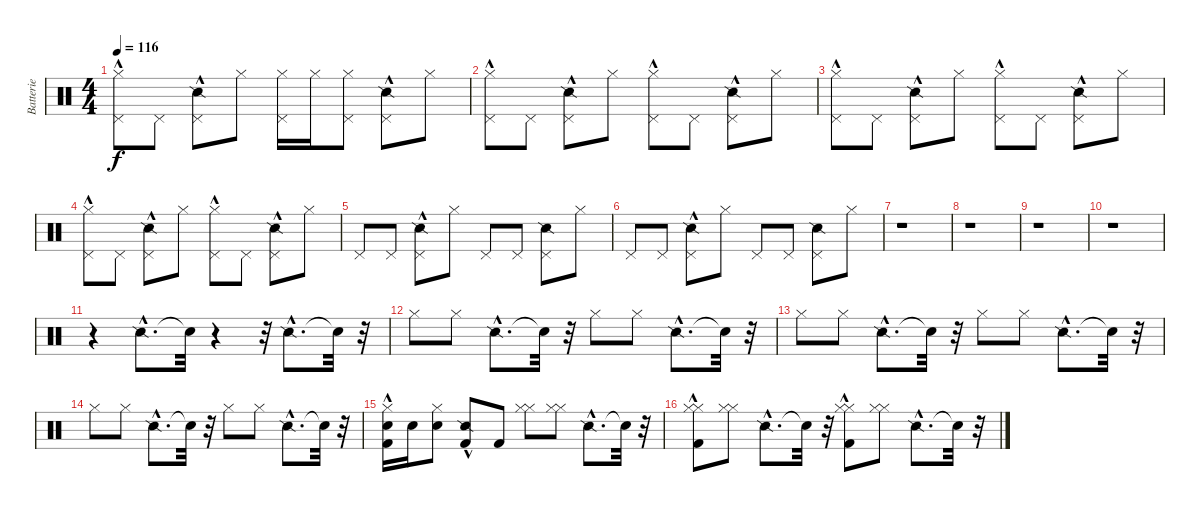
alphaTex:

\track ("Batterie" "Batterie") {instrument percussion}
\staff {score}
\articulation defaults
\ts (4 4)
\tempo 116
\clef neutral
\ks c
("Hi-Hat (closed)"{hac} "Pedal Hi-Hat (hit)").8{dy f} "Pedal Hi-Hat (hit)".8 ("Snare (side stick) 2"{hac} "Pedal Hi-Hat (hit)").8 "Hi-Hat (closed)".8 ("Hi-Hat (closed)" "Pedal Hi-Hat (hit)").16 "Hi-Hat (closed)".16 ("Hi-Hat (closed)" "Pedal Hi-Hat (hit)").8 ("Snare (side stick) 2"{hac} "Pedal Hi-Hat (hit)").8 "Hi-Hat (closed)".8 |
("Hi-Hat (closed)"{hac} "Pedal Hi-Hat (hit)").8 "Pedal Hi-Hat (hit)".8 ("Snare (side stick) 2"{hac} "Pedal Hi-Hat (hit)").8 "Hi-Hat (closed)".8 ("Hi-Hat (closed)"{hac} "Pedal Hi-Hat (hit)").8 "Pedal Hi-Hat (hit)".8 ("Snare (side stick) 2"{hac} "Pedal Hi-Hat (hit)").8 "Hi-Hat (closed)".8 |
("Hi-Hat (closed)"{hac} "Pedal Hi-Hat (hit)").8 "Pedal Hi-Hat (hit)".8 ("Snare (side stick) 2"{hac} "Pedal Hi-Hat (hit)").8 "Hi-Hat (closed)".8 ("Hi-Hat (closed)"{hac} "Pedal Hi-Hat (hit)").8 "Pedal Hi-Hat (hit)".8 ("Snare (side stick) 2"{hac} "Pedal Hi-Hat (hit)").8 "Hi-Hat (closed)".8 |
("Hi-Hat (closed)"{hac} "Pedal Hi-Hat (hit)").8 "Pedal Hi-Hat (hit)".8 ("Snare (side stick) 2"{hac} "Pedal Hi-Hat (hit)").8 "Hi-Hat (closed)".8 ("Hi-Hat (closed)"{hac} "Pedal Hi-Hat (hit)").8 "Pedal Hi-Hat (hit)".8 ("Snare (side stick) 2"{hac} "Pedal Hi-Hat (hit)").8 "Hi-Hat (closed)".8 |
"Pedal Hi-Hat (hit)".8 "Pedal Hi-Hat (hit)".8 ("Snare (side stick) 2"{hac} "Pedal Hi-Hat (hit)").8 "Hi-Hat (closed)".8 "Pedal Hi-Hat (hit)".8 "Pedal Hi-Hat (hit)".8 ("Snare (side stick) 2" "Pedal Hi-Hat (hit)").8 "Hi-Hat (closed)".8 |
"Pedal Hi-Hat (hit)".8 "Pedal Hi-Hat (hit)".8 ("Snare (side stick) 2"{hac} "Pedal Hi-Hat (hit)").8 "Hi-Hat (closed)".8 "Pedal Hi-Hat (hit)".8 "Pedal Hi-Hat (hit)".8 ("Snare (side stick) 2" "Pedal Hi-Hat (hit)").8 "Hi-Hat (closed)".8 |
r.1 |
r.1 |
r.1 |
r.1 |
r.4 "Snare (side stick) 2"{hac}.8{d} "Snare (hit)"{t}.32 r.4 r.32 "Snare (side stick) 2"{hac}.8{d} "Snare (hit)"{t}.32 r.32 |
"Hi-Hat (closed)".8 "Hi-Hat (closed)".8 "Snare (side stick) 2"{hac}.8{d} "Snare (hit)"{t}.32 r.32 "Hi-Hat (closed)".8 "Hi-Hat (closed)".8 "Snare (side stick) 2"{hac}.8{d} "Snare (hit)"{t}.32 r.32 |
"Hi-Hat (closed)".8 "Hi-Hat (closed)".8 "Snare (side stick) 2"{hac}.8{d} "Snare (hit)"{t}.32 r.32 "Hi-Hat (closed)".8 "Hi-Hat (closed)".8 "Snare (side stick) 2"{hac}.8{d} "Snare (hit)"{t}.32 r.32 |
"Hi-Hat (closed)".8 "Hi-Hat (closed)".8 "Snare (side stick) 2"{hac}.8{d} "Snare (hit)"{t}.32 r.32 "Hi-Hat (closed)".8 "Hi-Hat (closed)".8 "Snare (side stick) 2"{hac}.8{d} "Snare (hit)"{t}.32 r.32 |
("Kick (hit) 2"{hac} "Snare (hit) 2" "Hi-Hat (closed)").16 "Snare (hit) 2".16 ("Electric Snare (hit)" "Hi-Hat (closed)").8 ("Snare (side stick) 2"{hac} "Kick (hit) 2").8 "Kick (hit) 2".8 ("Hi-Hat (closed)" "Hi-Hat (closed)").8 ("Hi-Hat (closed)" "Hi-Hat (closed)").8 "Snare (side stick) 2"{hac}.8{d} "Snare (hit)"{t}.32 r.32 |
("Kick (hit) 2"{hac} "Hi-Hat (closed)" "Hi-Hat (closed)").8 ("Hi-Hat (closed)" "Hi-Hat (closed)").8 "Snare (side stick) 2"{hac}.8{d} "Snare (hit)"{t}.32 r.32 ("Kick (hit) 2"{hac} "Hi-Hat (closed)" "Hi-Hat (closed)").8 ("Hi-Hat (closed)" "Hi-Hat (closed)").8 "Snare (side stick) 2"{hac}.8{d} "Snare (hit)"{t}.32 r.32
